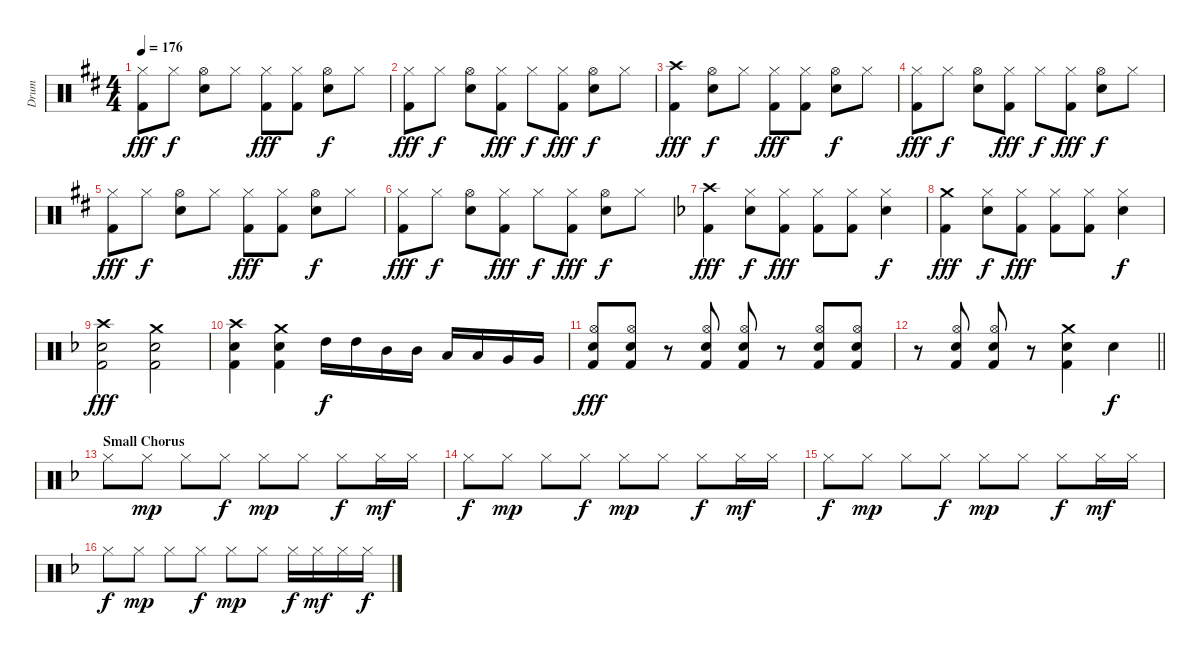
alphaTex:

\track ("Drum" "Drum") {instrument percussion}
\staff {score}
\articulation defaults
\ts (4 4)
\tempo 176
\clef neutral
\ks d
("Hi-Hat (closed)" "Kick (hit) 2").8{dy fff} "Hi-Hat (closed)".8{dy f} ("Hi-Hat (open)" "Snare (hit) 2").8 "Hi-Hat (closed)".8 ("Hi-Hat (closed)" "Kick (hit) 2").8{dy fff} ("Hi-Hat (closed)" "Kick (hit) 2").8 ("Hi-Hat (open)" "Snare (hit) 2").8{dy f} "Hi-Hat (closed)".8 |
("Hi-Hat (closed)" "Kick (hit) 2").8{dy fff} "Hi-Hat (closed)".8{dy f} ("Hi-Hat (open)" "Snare (hit) 2").8 ("Hi-Hat (closed)" "Kick (hit) 2").8{dy fff} "Hi-Hat (closed)".8{dy f} ("Hi-Hat (closed)" "Kick (hit) 2").8{dy fff} ("Hi-Hat (open)" "Snare (hit) 2").8{dy f} "Hi-Hat (closed)".8 |
("Crash high (hit)" "Kick (hit) 2").4{dy fff} ("Hi-Hat (open)" "Snare (hit) 2").8{dy f} "Hi-Hat (closed)".8 ("Hi-Hat (closed)" "Kick (hit) 2").8{dy fff} ("Hi-Hat (closed)" "Kick (hit) 2").8 ("Hi-Hat (open)" "Snare (hit) 2").8{dy f} "Hi-Hat (closed)".8 |
("Hi-Hat (closed)" "Kick (hit) 2").8{dy fff} "Hi-Hat (closed)".8{dy f} ("Hi-Hat (open)" "Snare (hit) 2").8 ("Hi-Hat (closed)" "Kick (hit) 2").8{dy fff} "Hi-Hat (closed)".8{dy f} ("Hi-Hat (closed)" "Kick (hit) 2").8{dy fff} ("Hi-Hat (open)" "Snare (hit) 2").8{dy f} "Hi-Hat (closed)".8 |
("Hi-Hat (closed)" "Kick (hit) 2").8{dy fff} "Hi-Hat (closed)".8{dy f} ("Hi-Hat (open)" "Snare (hit) 2").8 "Hi-Hat (closed)".8 ("Hi-Hat (closed)" "Kick (hit) 2").8{dy fff} ("Hi-Hat (closed)" "Kick (hit) 2").8 ("Hi-Hat (open)" "Snare (hit) 2").8{dy f} "Hi-Hat (closed)".8 |
("Hi-Hat (closed)" "Kick (hit) 2").8{dy fff} "Hi-Hat (closed)".8{dy f} ("Hi-Hat (open)" "Snare (hit) 2").8 ("Hi-Hat (closed)" "Kick (hit) 2").8{dy fff} "Hi-Hat (closed)".8{dy f} ("Hi-Hat (closed)" "Kick (hit) 2").8{dy fff} ("Hi-Hat (open)" "Snare (hit) 2").8{dy f} "Hi-Hat (closed)".8 |
\ks f
("Crash high (hit)" "Kick (hit) 2").4{dy fff} ("Hi-Hat (closed)" "Snare (hit) 2").8{dy f} ("Hi-Hat (closed)" "Kick (hit) 2").8{dy fff} ("Hi-Hat (closed)" "Kick (hit) 2").8 ("Hi-Hat (closed)" "Kick (hit) 2").8 ("Hi-Hat (closed)" "Snare (hit) 2").4{dy f} |
("Crash medium (hit)" "Kick (hit) 2").4{dy fff} ("Hi-Hat (closed)" "Snare (hit) 2").8{dy f} ("Hi-Hat (closed)" "Kick (hit) 2").8{dy fff} ("Hi-Hat (closed)" "Kick (hit) 2").8 ("Hi-Hat (closed)" "Kick (hit) 2").8 ("Hi-Hat (closed)" "Snare (hit) 2").4{dy f} |
("Crash high (hit)" "Snare (hit) 2" "Kick (hit) 2").2{dy fff} ("Crash medium (hit)" "Snare (hit) 2" "Kick (hit) 2").2 |
("Crash high (hit)" "Snare (hit) 2" "Kick (hit) 2").4 ("Crash medium (hit)" "Snare (hit) 2" "Kick (hit) 2").4 "High Tom (hit)".16{dy f} "High Tom (hit)".16 "Mid Tom (hit)".16 "Mid Tom (hit)".16 "Low Tom (hit)".16 "Low Tom (hit)".16 "Very Low Tom (hit)".16 "Very Low Tom (hit)".16 |
("Hi-Hat (open)" "Snare (hit) 2" "Kick (hit) 2").8{dy fff} ("Hi-Hat (open)" "Snare (hit) 2" "Kick (hit) 2").8 r.8 ("Hi-Hat (open)" "Snare (hit) 2" "Kick (hit) 2").8 ("Hi-Hat (open)" "Snare (hit) 2" "Kick (hit) 2").8 r.8 ("Hi-Hat (open)" "Snare (hit) 2" "Kick (hit) 2").8 ("Hi-Hat (open)" "Snare (hit) 2" "Kick (hit) 2").8 |
\barLineRight lightlight
r.8 ("Hi-Hat (open)" "Snare (hit) 2" "Kick (hit) 2").8 ("Hi-Hat (open)" "Snare (hit) 2" "Kick (hit) 2").8 r.8 ("Crash medium (hit)" "Snare (hit) 2" "Kick (hit) 2").4 "Snare (hit) 2".4{dy f} |
\section ("" "Small Chorus")
"Hi-Hat (closed)".8 "Hi-Hat (closed)".8{dy mp} "Hi-Hat (closed)".8 "Hi-Hat (closed)".8{dy f} "Hi-Hat (closed)".8{dy mp} "Hi-Hat (closed)".8 "Hi-Hat (closed)".8{dy f} "Hi-Hat (closed)".16{dy mf} "Hi-Hat (closed)".16 |
"Hi-Hat (closed)".8{dy f} "Hi-Hat (closed)".8{dy mp} "Hi-Hat (closed)".8 "Hi-Hat (closed)".8{dy f} "Hi-Hat (closed)".8{dy mp} "Hi-Hat (closed)".8 "Hi-Hat (closed)".8{dy f} "Hi-Hat (closed)".16{dy mf} "Hi-Hat (closed)".16 |
"Hi-Hat (closed)".8{dy f} "Hi-Hat (closed)".8{dy mp} "Hi-Hat (closed)".8 "Hi-Hat (closed)".8{dy f} "Hi-Hat (closed)".8{dy mp} "Hi-Hat (closed)".8 "Hi-Hat (closed)".8{dy f} "Hi-Hat (closed)".16{dy mf} "Hi-Hat (closed)".16 |
"Hi-Hat (closed)".8{dy f} "Hi-Hat (closed)".8{dy mp} "Hi-Hat (closed)".8 "Hi-Hat (closed)".8{dy f} "Hi-Hat (closed)".8{dy mp} "Hi-Hat (closed)".8 "Hi-Hat (closed)".16{dy f} "Hi-Hat (closed)".16{dy mf} "Hi-Hat (closed)".16 "Hi-Hat (closed)".16{dy f}
